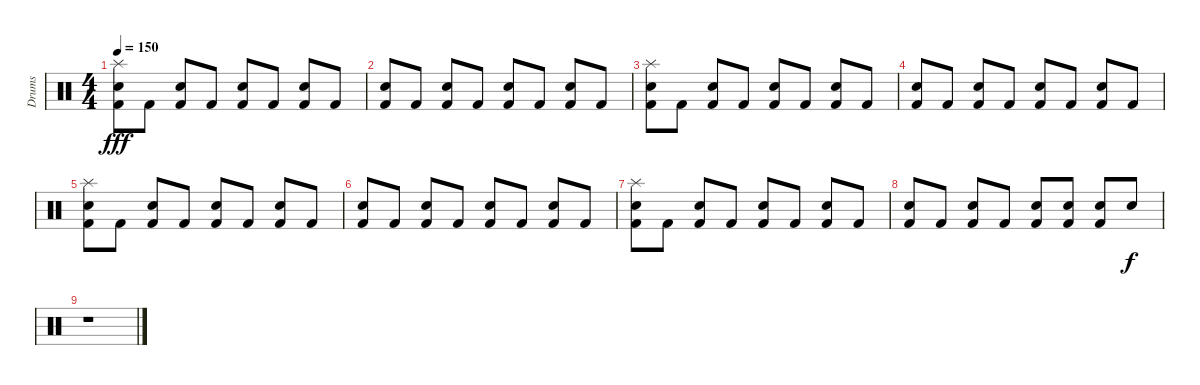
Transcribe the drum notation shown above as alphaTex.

\track ("Drums" "Drums") {instrument percussion}
\staff {score}
\articulation defaults
\ts (4 4)
\tempo 150
\clef neutral
\ks c
("Splash (hit)" "Snare (hit) 2" "Kick (hit) 2").8{dy fff} "Kick (hit) 2".8 ("Snare (hit) 2" "Kick (hit) 2").8 "Kick (hit) 2".8 ("Snare (hit) 2" "Kick (hit) 2").8 "Kick (hit) 2".8 ("Snare (hit) 2" "Kick (hit) 2").8 "Kick (hit) 2".8 |
("Snare (hit) 2" "Kick (hit) 2").8 "Kick (hit) 2".8 ("Snare (hit) 2" "Kick (hit) 2").8 "Kick (hit) 2".8 ("Snare (hit) 2" "Kick (hit) 2").8 "Kick (hit) 2".8 ("Snare (hit) 2" "Kick (hit) 2").8 "Kick (hit) 2".8 |
("Splash (hit)" "Snare (hit) 2" "Kick (hit) 2").8 "Kick (hit) 2".8 ("Snare (hit) 2" "Kick (hit) 2").8 "Kick (hit) 2".8 ("Snare (hit) 2" "Kick (hit) 2").8 "Kick (hit) 2".8 ("Snare (hit) 2" "Kick (hit) 2").8 "Kick (hit) 2".8 |
("Snare (hit) 2" "Kick (hit) 2").8 "Kick (hit) 2".8 ("Snare (hit) 2" "Kick (hit) 2").8 "Kick (hit) 2".8 ("Snare (hit) 2" "Kick (hit) 2").8 "Kick (hit) 2".8 ("Snare (hit) 2" "Kick (hit) 2").8 "Kick (hit) 2".8 |
("Splash (hit)" "Snare (hit) 2" "Kick (hit) 2").8 "Kick (hit) 2".8 ("Snare (hit) 2" "Kick (hit) 2").8 "Kick (hit) 2".8 ("Snare (hit) 2" "Kick (hit) 2").8 "Kick (hit) 2".8 ("Snare (hit) 2" "Kick (hit) 2").8 "Kick (hit) 2".8 |
("Snare (hit) 2" "Kick (hit) 2").8 "Kick (hit) 2".8 ("Snare (hit) 2" "Kick (hit) 2").8 "Kick (hit) 2".8 ("Snare (hit) 2" "Kick (hit) 2").8 "Kick (hit) 2".8 ("Snare (hit) 2" "Kick (hit) 2").8 "Kick (hit) 2".8 |
("Splash (hit)" "Snare (hit) 2" "Kick (hit) 2").8 "Kick (hit) 2".8 ("Snare (hit) 2" "Kick (hit) 2").8 "Kick (hit) 2".8 ("Snare (hit) 2" "Kick (hit) 2").8 "Kick (hit) 2".8 ("Snare (hit) 2" "Kick (hit) 2").8 "Kick (hit) 2".8 |
("Snare (hit) 2" "Kick (hit) 2").8 "Kick (hit) 2".8 ("Snare (hit) 2" "Kick (hit) 2").8 "Kick (hit) 2".8 ("Snare (hit) 2" "Kick (hit) 2").8 ("Snare (hit) 2" "Kick (hit) 2").8 ("Snare (hit) 2" "Kick (hit) 2").8 "Snare (hit) 2".8{dy f} |
r.1
